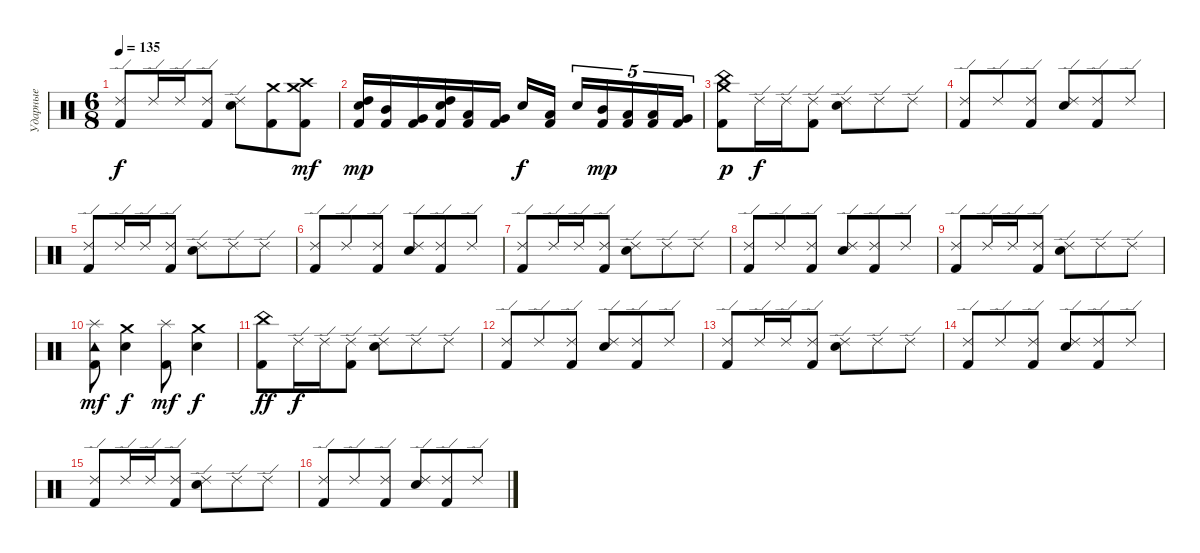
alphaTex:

\track ("Ударные" "Ударные") {instrument percussion}
\staff {score}
\articulation defaults
\ts (6 8)
\tempo 135
\clef neutral
\ks c
("Ride (edge) 2" "Kick (hit) 2").8{dy f} "Ride (edge) 2".16 "Ride (edge) 2".16 ("Ride (edge) 2" "Kick (hit) 2").8 ("Ride (edge) 2" "Electric Snare (hit)").8 ("Crash medium (hit)" "Kick (hit) 2").8 ("Crash high (hit)" "Crash medium (hit)" "Kick (hit) 2").8{dy mf} |
("Electric Snare (hit)" "High Tom (hit)" "Kick (hit) 2").16{dy mp} ("Mid Tom (hit)" "Kick (hit) 2").16 ("Very Low Tom (hit)" "Kick (hit) 2").16 ("Electric Snare (hit)" "High Tom (hit)" "Kick (hit) 2").16 ("Low Tom (hit)" "Kick (hit) 2").16 ("Very Low Tom (hit)" "Kick (hit) 2").16 "Electric Snare (hit)".16{dy f} ("Low Tom (hit)" "Kick (hit) 2").16 "Electric Snare (hit)".16{tu (5 4)} ("Mid Tom (hit)" "Kick (hit) 2").16{tu (5 4) dy mp} ("Low Tom (hit)" "Kick (hit) 2").16{tu (5 4)} ("Low Tom (hit)" "Kick (hit) 2").16{tu (5 4)} ("Very Low Tom (hit)" "Kick (hit) 2").16{tu (5 4)} |
("Crash medium (hit)" "China (hit)" "Kick (hit) 2").8{dy p} "Ride (edge) 2".16{dy f} "Ride (edge) 2".16 ("Ride (edge) 2" "Kick (hit) 2").8 ("Ride (edge) 2" "Electric Snare (hit)").8 "Ride (edge) 2".8 "Ride (edge) 2".8 |
("Ride (edge) 2" "Kick (hit) 2").8 "Ride (edge) 2".8 ("Ride (edge) 2" "Kick (hit) 2").8 ("Ride (edge) 2" "Electric Snare (hit)").8 ("Ride (edge) 2" "Kick (hit) 2").8 "Ride (edge) 2".8 |
("Ride (edge) 2" "Kick (hit) 2").8 "Ride (edge) 2".16 "Ride (edge) 2".16 ("Ride (edge) 2" "Kick (hit) 2").8 ("Ride (edge) 2" "Electric Snare (hit)").8 "Ride (edge) 2".8 "Ride (edge) 2".8 |
("Ride (edge) 2" "Kick (hit) 2").8 "Ride (edge) 2".8 ("Ride (edge) 2" "Kick (hit) 2").8 ("Ride (edge) 2" "Electric Snare (hit)").8 ("Ride (edge) 2" "Kick (hit) 2").8 "Ride (edge) 2".8 |
("Ride (edge) 2" "Kick (hit) 2").8 "Ride (edge) 2".16 "Ride (edge) 2".16 ("Ride (edge) 2" "Kick (hit) 2").8 ("Ride (edge) 2" "Electric Snare (hit)").8 "Ride (edge) 2".8 "Ride (edge) 2".8 |
("Ride (edge) 2" "Kick (hit) 2").8 "Ride (edge) 2".8 ("Ride (edge) 2" "Kick (hit) 2").8 ("Ride (edge) 2" "Electric Snare (hit)").8 ("Ride (edge) 2" "Kick (hit) 2").8 "Ride (edge) 2".8 |
("Ride (edge) 2" "Kick (hit) 2").8 "Ride (edge) 2".16 "Ride (edge) 2".16 ("Ride (edge) 2" "Kick (hit) 2").8 ("Ride (edge) 2" "Electric Snare (hit)").8 "Ride (edge) 2".8 "Ride (edge) 2".8 |
("Kick (hit) 2" "Tambourine (hit)" "Splash (hit)").8{dy mf} ("Electric Snare (hit)" "Crash medium (hit)").4{dy f} ("Kick (hit) 2" "Splash (hit)").8{dy mf} ("Electric Snare (hit)" "Crash medium (hit)").4{dy f} |
("China (hit)" "Kick (hit) 2").8{dy ff} "Ride (edge) 2".16{dy f} "Ride (edge) 2".16 ("Ride (edge) 2" "Kick (hit) 2").8 ("Ride (edge) 2" "Electric Snare (hit)").8 "Ride (edge) 2".8 "Ride (edge) 2".8 |
("Ride (edge) 2" "Kick (hit) 2").8 "Ride (edge) 2".8 ("Ride (edge) 2" "Kick (hit) 2").8 ("Ride (edge) 2" "Electric Snare (hit)").8 ("Ride (edge) 2" "Kick (hit) 2").8 "Ride (edge) 2".8 |
("Ride (edge) 2" "Kick (hit) 2").8 "Ride (edge) 2".16 "Ride (edge) 2".16 ("Ride (edge) 2" "Kick (hit) 2").8 ("Ride (edge) 2" "Electric Snare (hit)").8 "Ride (edge) 2".8 "Ride (edge) 2".8 |
("Ride (edge) 2" "Kick (hit) 2").8 "Ride (edge) 2".8 ("Ride (edge) 2" "Kick (hit) 2").8 ("Ride (edge) 2" "Electric Snare (hit)").8 ("Ride (edge) 2" "Kick (hit) 2").8 "Ride (edge) 2".8 |
("Ride (edge) 2" "Kick (hit) 2").8 "Ride (edge) 2".16 "Ride (edge) 2".16 ("Ride (edge) 2" "Kick (hit) 2").8 ("Ride (edge) 2" "Electric Snare (hit)").8 "Ride (edge) 2".8 "Ride (edge) 2".8 |
("Ride (edge) 2" "Kick (hit) 2").8 "Ride (edge) 2".8 ("Ride (edge) 2" "Kick (hit) 2").8 ("Ride (edge) 2" "Electric Snare (hit)").8 ("Ride (edge) 2" "Kick (hit) 2").8 "Ride (edge) 2".8
